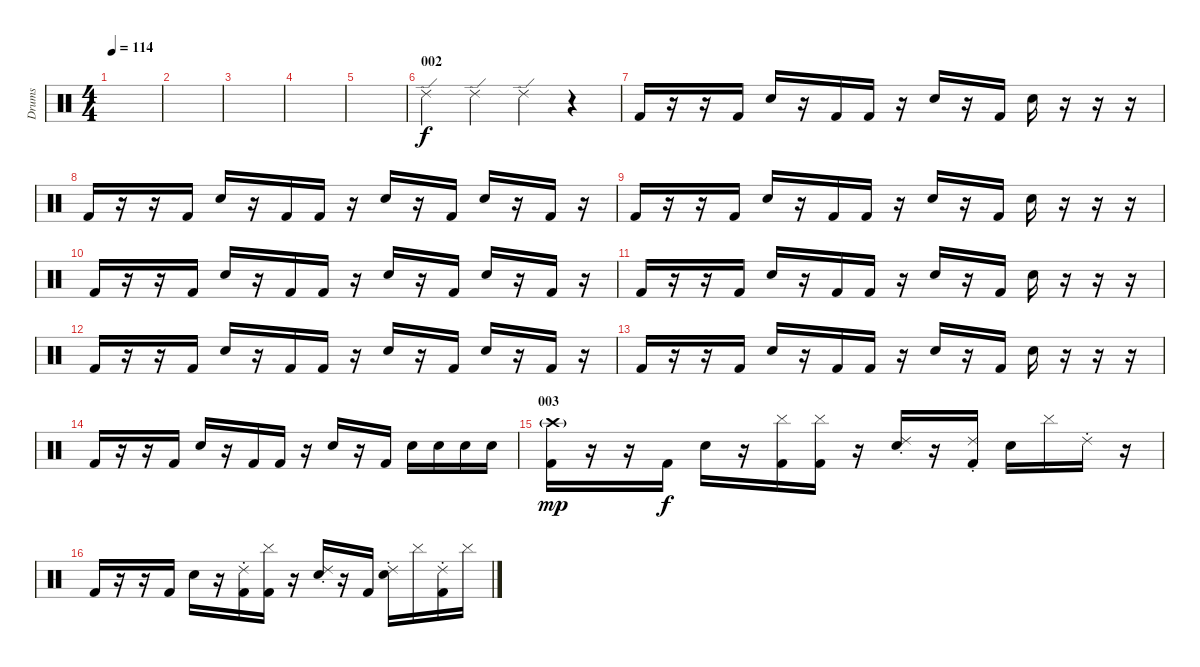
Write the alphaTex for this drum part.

\track ("Drums" "Drums") {instrument percussion}
\staff {score}
\articulation defaults
\ts (4 4)
\tempo 114
\clef neutral
\ks c
|
|
|
|
|
\section ("" "002")
"Ride (edge) 2".4 "Ride (edge) 2".4 "Ride (edge) 2".4 r.4 |
"Kick (hit) 2".16 r.16 r.16 "Kick (hit) 2".16 "Electric Snare (hit)".16 r.16 "Kick (hit) 2".16 "Kick (hit) 2".16 r.16 "Electric Snare (hit)".16 r.16 "Kick (hit) 2".16 "Electric Snare (hit)".16 r.16 r.16 r.16 |
"Kick (hit) 2".16 r.16 r.16 "Kick (hit) 2".16 "Electric Snare (hit)".16 r.16 "Kick (hit) 2".16 "Kick (hit) 2".16 r.16 "Electric Snare (hit)".16 r.16 "Kick (hit) 2".16 "Electric Snare (hit)".16 r.16 "Kick (hit) 2".16 r.16 |
"Kick (hit) 2".16 r.16 r.16 "Kick (hit) 2".16 "Electric Snare (hit)".16 r.16 "Kick (hit) 2".16 "Kick (hit) 2".16 r.16 "Electric Snare (hit)".16 r.16 "Kick (hit) 2".16 "Electric Snare (hit)".16 r.16 r.16 r.16 |
"Kick (hit) 2".16 r.16 r.16 "Kick (hit) 2".16 "Electric Snare (hit)".16 r.16 "Kick (hit) 2".16 "Kick (hit) 2".16 r.16 "Electric Snare (hit)".16 r.16 "Kick (hit) 2".16 "Electric Snare (hit)".16 r.16 "Kick (hit) 2".16 r.16 |
"Kick (hit) 2".16 r.16 r.16 "Kick (hit) 2".16 "Electric Snare (hit)".16 r.16 "Kick (hit) 2".16 "Kick (hit) 2".16 r.16 "Electric Snare (hit)".16 r.16 "Kick (hit) 2".16 "Electric Snare (hit)".16 r.16 r.16 r.16 |
"Kick (hit) 2".16 r.16 r.16 "Kick (hit) 2".16 "Electric Snare (hit)".16 r.16 "Kick (hit) 2".16 "Kick (hit) 2".16 r.16 "Electric Snare (hit)".16 r.16 "Kick (hit) 2".16 "Electric Snare (hit)".16 r.16 "Kick (hit) 2".16 r.16 |
"Kick (hit) 2".16 r.16 r.16 "Kick (hit) 2".16 "Electric Snare (hit)".16 r.16 "Kick (hit) 2".16 "Kick (hit) 2".16 r.16 "Electric Snare (hit)".16 r.16 "Kick (hit) 2".16 "Electric Snare (hit)".16 r.16 r.16 r.16 |
"Kick (hit) 2".16 r.16 r.16 "Kick (hit) 2".16 "Electric Snare (hit)".16 r.16 "Kick (hit) 2".16 "Kick (hit) 2".16 r.16 "Electric Snare (hit)".16 r.16 "Kick (hit) 2".16 "Electric Snare (hit)".16 "Electric Snare (hit)".16 "Electric Snare (hit)".16 "Electric Snare (hit)".16 |
\section ("" "003")
("Kick (hit) 2" "Crash high (hit)"{g}).16{dy mp} r.16 r.16 "Kick (hit) 2".16{dy f} "Electric Snare (hit)".16 r.16 ("Kick (hit) 2" "Cymbal (hit)").16 ("Kick (hit) 2" "Cymbal (hit)").16 r.16 ("Electric Snare (hit)" "Ride (choke) 2").16 r.16 ("Kick (hit) 2" "Ride (choke) 2").16 "Electric Snare (hit)".16 "Cymbal (hit)".16 "Ride (choke) 2".16 r.16 |
"Kick (hit) 2".16 r.16 r.16 "Kick (hit) 2".16 "Electric Snare (hit)".16 r.16 ("Kick (hit) 2" "Ride (choke) 2").16 ("Kick (hit) 2" "Cymbal (hit)").16 r.16 ("Electric Snare (hit)" "Ride (choke) 2").16 r.16 "Kick (hit) 2".16 ("Electric Snare (hit)" "Ride (choke) 2").16 "Cymbal (hit)".16 ("Kick (hit) 2" "Ride (choke) 2").16 "Cymbal (hit)".16
